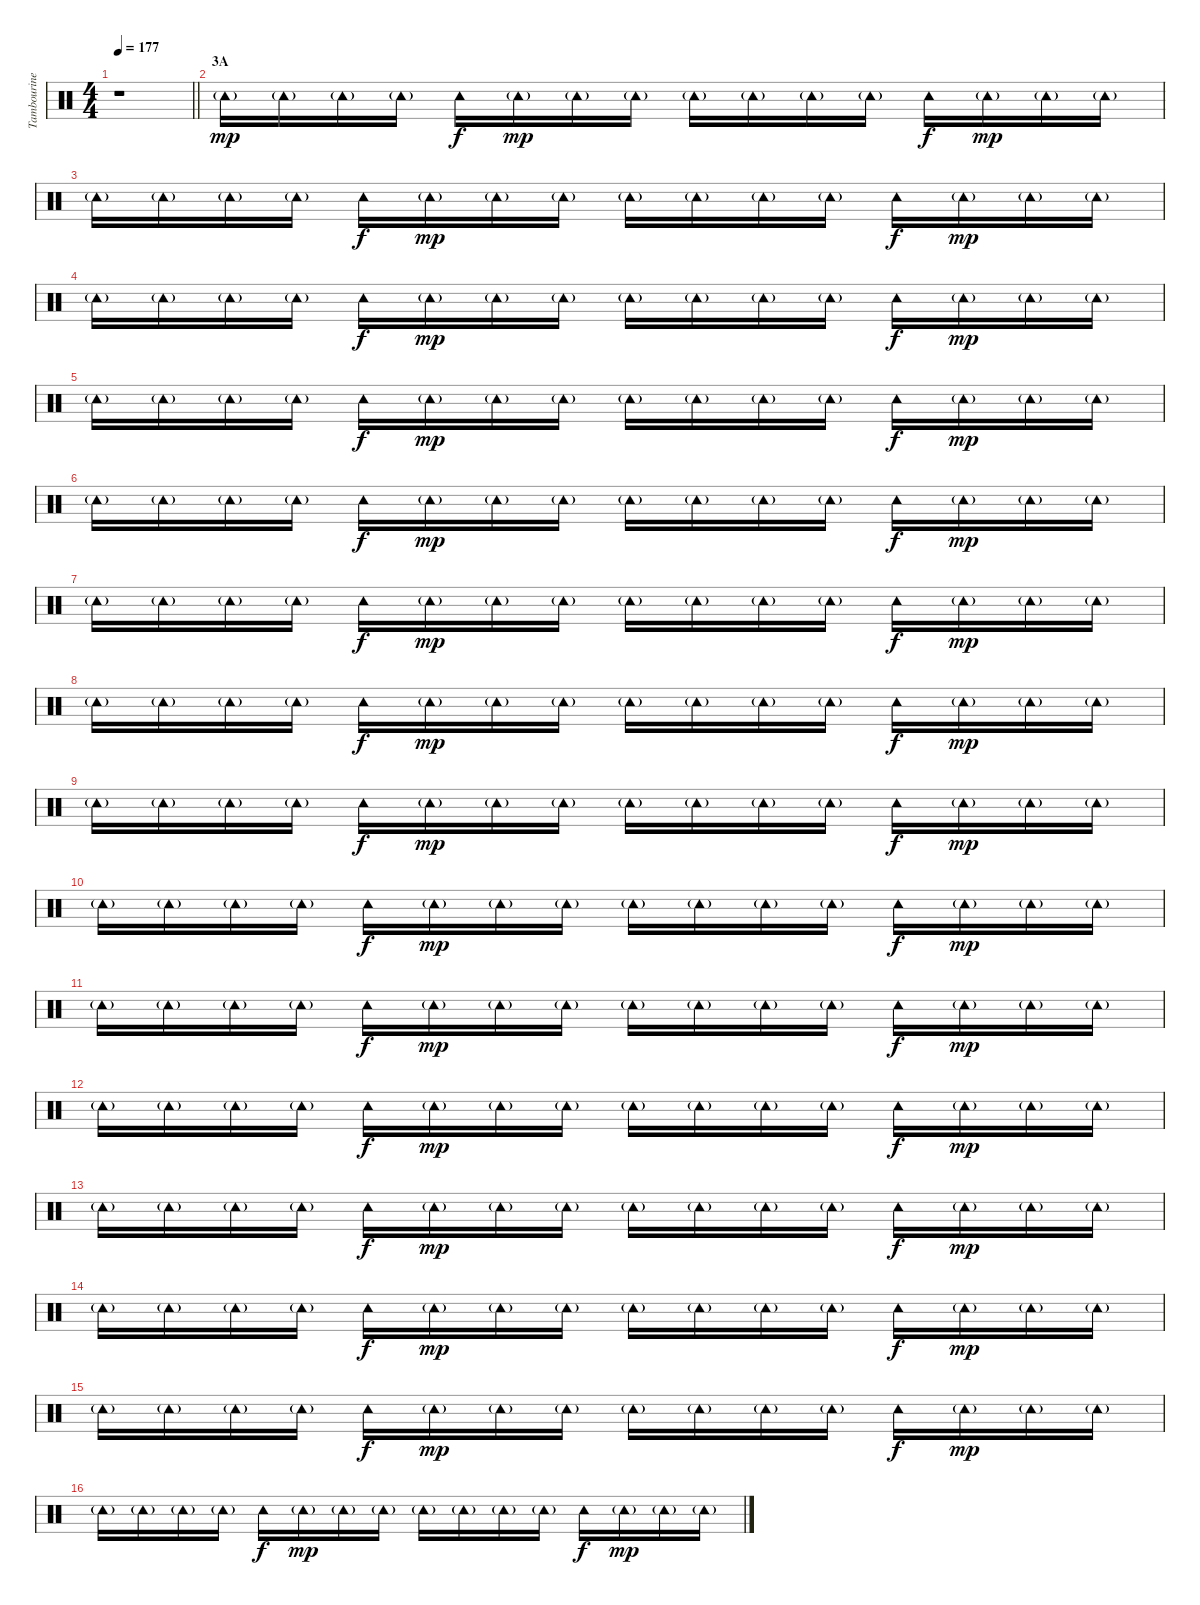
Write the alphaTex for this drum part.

\track ("Tambourine" "Tambourine") {instrument percussion}
\staff {score}
\articulation defaults
\ts (4 4)
\tempo 177
\clef neutral
\barLineRight lightlight
\ks c
r.1{dy f} |
\section ("" "3A")
"Tambourine (hit)"{g}.16{dy mp} "Tambourine (hit)"{g}.16 "Tambourine (hit)"{g}.16 "Tambourine (hit)"{g}.16 "Tambourine (hit)".16{dy f} "Tambourine (hit)"{g}.16{dy mp} "Tambourine (hit)"{g}.16 "Tambourine (hit)"{g}.16 "Tambourine (hit)"{g}.16 "Tambourine (hit)"{g}.16 "Tambourine (hit)"{g}.16 "Tambourine (hit)"{g}.16 "Tambourine (hit)".16{dy f} "Tambourine (hit)"{g}.16{dy mp} "Tambourine (hit)"{g}.16 "Tambourine (hit)"{g}.16 |
"Tambourine (hit)"{g}.16 "Tambourine (hit)"{g}.16 "Tambourine (hit)"{g}.16 "Tambourine (hit)"{g}.16 "Tambourine (hit)".16{dy f} "Tambourine (hit)"{g}.16{dy mp} "Tambourine (hit)"{g}.16 "Tambourine (hit)"{g}.16 "Tambourine (hit)"{g}.16 "Tambourine (hit)"{g}.16 "Tambourine (hit)"{g}.16 "Tambourine (hit)"{g}.16 "Tambourine (hit)".16{dy f} "Tambourine (hit)"{g}.16{dy mp} "Tambourine (hit)"{g}.16 "Tambourine (hit)"{g}.16 |
"Tambourine (hit)"{g}.16 "Tambourine (hit)"{g}.16 "Tambourine (hit)"{g}.16 "Tambourine (hit)"{g}.16 "Tambourine (hit)".16{dy f} "Tambourine (hit)"{g}.16{dy mp} "Tambourine (hit)"{g}.16 "Tambourine (hit)"{g}.16 "Tambourine (hit)"{g}.16 "Tambourine (hit)"{g}.16 "Tambourine (hit)"{g}.16 "Tambourine (hit)"{g}.16 "Tambourine (hit)".16{dy f} "Tambourine (hit)"{g}.16{dy mp} "Tambourine (hit)"{g}.16 "Tambourine (hit)"{g}.16 |
"Tambourine (hit)"{g}.16 "Tambourine (hit)"{g}.16 "Tambourine (hit)"{g}.16 "Tambourine (hit)"{g}.16 "Tambourine (hit)".16{dy f} "Tambourine (hit)"{g}.16{dy mp} "Tambourine (hit)"{g}.16 "Tambourine (hit)"{g}.16 "Tambourine (hit)"{g}.16 "Tambourine (hit)"{g}.16 "Tambourine (hit)"{g}.16 "Tambourine (hit)"{g}.16 "Tambourine (hit)".16{dy f} "Tambourine (hit)"{g}.16{dy mp} "Tambourine (hit)"{g}.16 "Tambourine (hit)"{g}.16 |
"Tambourine (hit)"{g}.16 "Tambourine (hit)"{g}.16 "Tambourine (hit)"{g}.16 "Tambourine (hit)"{g}.16 "Tambourine (hit)".16{dy f} "Tambourine (hit)"{g}.16{dy mp} "Tambourine (hit)"{g}.16 "Tambourine (hit)"{g}.16 "Tambourine (hit)"{g}.16 "Tambourine (hit)"{g}.16 "Tambourine (hit)"{g}.16 "Tambourine (hit)"{g}.16 "Tambourine (hit)".16{dy f} "Tambourine (hit)"{g}.16{dy mp} "Tambourine (hit)"{g}.16 "Tambourine (hit)"{g}.16 |
"Tambourine (hit)"{g}.16 "Tambourine (hit)"{g}.16 "Tambourine (hit)"{g}.16 "Tambourine (hit)"{g}.16 "Tambourine (hit)".16{dy f} "Tambourine (hit)"{g}.16{dy mp} "Tambourine (hit)"{g}.16 "Tambourine (hit)"{g}.16 "Tambourine (hit)"{g}.16 "Tambourine (hit)"{g}.16 "Tambourine (hit)"{g}.16 "Tambourine (hit)"{g}.16 "Tambourine (hit)".16{dy f} "Tambourine (hit)"{g}.16{dy mp} "Tambourine (hit)"{g}.16 "Tambourine (hit)"{g}.16 |
"Tambourine (hit)"{g}.16 "Tambourine (hit)"{g}.16 "Tambourine (hit)"{g}.16 "Tambourine (hit)"{g}.16 "Tambourine (hit)".16{dy f} "Tambourine (hit)"{g}.16{dy mp} "Tambourine (hit)"{g}.16 "Tambourine (hit)"{g}.16 "Tambourine (hit)"{g}.16 "Tambourine (hit)"{g}.16 "Tambourine (hit)"{g}.16 "Tambourine (hit)"{g}.16 "Tambourine (hit)".16{dy f} "Tambourine (hit)"{g}.16{dy mp} "Tambourine (hit)"{g}.16 "Tambourine (hit)"{g}.16 |
"Tambourine (hit)"{g}.16 "Tambourine (hit)"{g}.16 "Tambourine (hit)"{g}.16 "Tambourine (hit)"{g}.16 "Tambourine (hit)".16{dy f} "Tambourine (hit)"{g}.16{dy mp} "Tambourine (hit)"{g}.16 "Tambourine (hit)"{g}.16 "Tambourine (hit)"{g}.16 "Tambourine (hit)"{g}.16 "Tambourine (hit)"{g}.16 "Tambourine (hit)"{g}.16 "Tambourine (hit)".16{dy f} "Tambourine (hit)"{g}.16{dy mp} "Tambourine (hit)"{g}.16 "Tambourine (hit)"{g}.16 |
"Tambourine (hit)"{g}.16 "Tambourine (hit)"{g}.16 "Tambourine (hit)"{g}.16 "Tambourine (hit)"{g}.16 "Tambourine (hit)".16{dy f} "Tambourine (hit)"{g}.16{dy mp} "Tambourine (hit)"{g}.16 "Tambourine (hit)"{g}.16 "Tambourine (hit)"{g}.16 "Tambourine (hit)"{g}.16 "Tambourine (hit)"{g}.16 "Tambourine (hit)"{g}.16 "Tambourine (hit)".16{dy f} "Tambourine (hit)"{g}.16{dy mp} "Tambourine (hit)"{g}.16 "Tambourine (hit)"{g}.16 |
"Tambourine (hit)"{g}.16 "Tambourine (hit)"{g}.16 "Tambourine (hit)"{g}.16 "Tambourine (hit)"{g}.16 "Tambourine (hit)".16{dy f} "Tambourine (hit)"{g}.16{dy mp} "Tambourine (hit)"{g}.16 "Tambourine (hit)"{g}.16 "Tambourine (hit)"{g}.16 "Tambourine (hit)"{g}.16 "Tambourine (hit)"{g}.16 "Tambourine (hit)"{g}.16 "Tambourine (hit)".16{dy f} "Tambourine (hit)"{g}.16{dy mp} "Tambourine (hit)"{g}.16 "Tambourine (hit)"{g}.16 |
"Tambourine (hit)"{g}.16 "Tambourine (hit)"{g}.16 "Tambourine (hit)"{g}.16 "Tambourine (hit)"{g}.16 "Tambourine (hit)".16{dy f} "Tambourine (hit)"{g}.16{dy mp} "Tambourine (hit)"{g}.16 "Tambourine (hit)"{g}.16 "Tambourine (hit)"{g}.16 "Tambourine (hit)"{g}.16 "Tambourine (hit)"{g}.16 "Tambourine (hit)"{g}.16 "Tambourine (hit)".16{dy f} "Tambourine (hit)"{g}.16{dy mp} "Tambourine (hit)"{g}.16 "Tambourine (hit)"{g}.16 |
"Tambourine (hit)"{g}.16 "Tambourine (hit)"{g}.16 "Tambourine (hit)"{g}.16 "Tambourine (hit)"{g}.16 "Tambourine (hit)".16{dy f} "Tambourine (hit)"{g}.16{dy mp} "Tambourine (hit)"{g}.16 "Tambourine (hit)"{g}.16 "Tambourine (hit)"{g}.16 "Tambourine (hit)"{g}.16 "Tambourine (hit)"{g}.16 "Tambourine (hit)"{g}.16 "Tambourine (hit)".16{dy f} "Tambourine (hit)"{g}.16{dy mp} "Tambourine (hit)"{g}.16 "Tambourine (hit)"{g}.16 |
"Tambourine (hit)"{g}.16 "Tambourine (hit)"{g}.16 "Tambourine (hit)"{g}.16 "Tambourine (hit)"{g}.16 "Tambourine (hit)".16{dy f} "Tambourine (hit)"{g}.16{dy mp} "Tambourine (hit)"{g}.16 "Tambourine (hit)"{g}.16 "Tambourine (hit)"{g}.16 "Tambourine (hit)"{g}.16 "Tambourine (hit)"{g}.16 "Tambourine (hit)"{g}.16 "Tambourine (hit)".16{dy f} "Tambourine (hit)"{g}.16{dy mp} "Tambourine (hit)"{g}.16 "Tambourine (hit)"{g}.16 |
"Tambourine (hit)"{g}.16 "Tambourine (hit)"{g}.16 "Tambourine (hit)"{g}.16 "Tambourine (hit)"{g}.16 "Tambourine (hit)".16{dy f} "Tambourine (hit)"{g}.16{dy mp} "Tambourine (hit)"{g}.16 "Tambourine (hit)"{g}.16 "Tambourine (hit)"{g}.16 "Tambourine (hit)"{g}.16 "Tambourine (hit)"{g}.16 "Tambourine (hit)"{g}.16 "Tambourine (hit)".16{dy f} "Tambourine (hit)"{g}.16{dy mp} "Tambourine (hit)"{g}.16 "Tambourine (hit)"{g}.16 |
"Tambourine (hit)"{g}.16 "Tambourine (hit)"{g}.16 "Tambourine (hit)"{g}.16 "Tambourine (hit)"{g}.16 "Tambourine (hit)".16{dy f} "Tambourine (hit)"{g}.16{dy mp} "Tambourine (hit)"{g}.16 "Tambourine (hit)"{g}.16 "Tambourine (hit)"{g}.16 "Tambourine (hit)"{g}.16 "Tambourine (hit)"{g}.16 "Tambourine (hit)"{g}.16 "Tambourine (hit)".16{dy f} "Tambourine (hit)"{g}.16{dy mp} "Tambourine (hit)"{g}.16 "Tambourine (hit)"{g}.16
